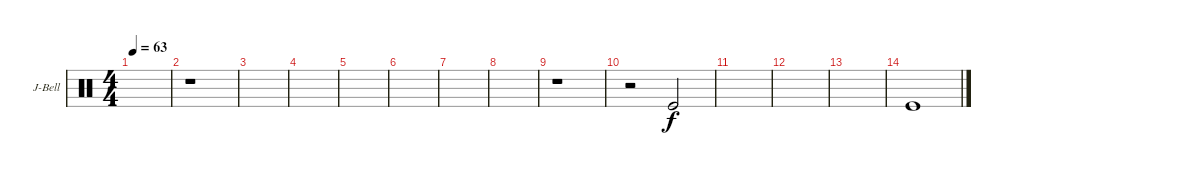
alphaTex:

\defaultSystemsLayout 4
\bracketExtendMode groupsimilarinstruments
\firstSystemTrackNameOrientation horizontal
\otherSystemsTrackNameOrientation horizontal
\track ("Jingle Bell" "J-Bell") {instrument percussion}
\staff {score}
\articulation defaults
\ts (4 4)
\tempo 63
\clef neutral
\ks c
|
r.1 |
|
|
|
|
|
|
r.1 |
r.2 "Kick (hit)".2 |
|
|
|
"Kick (hit)".1
